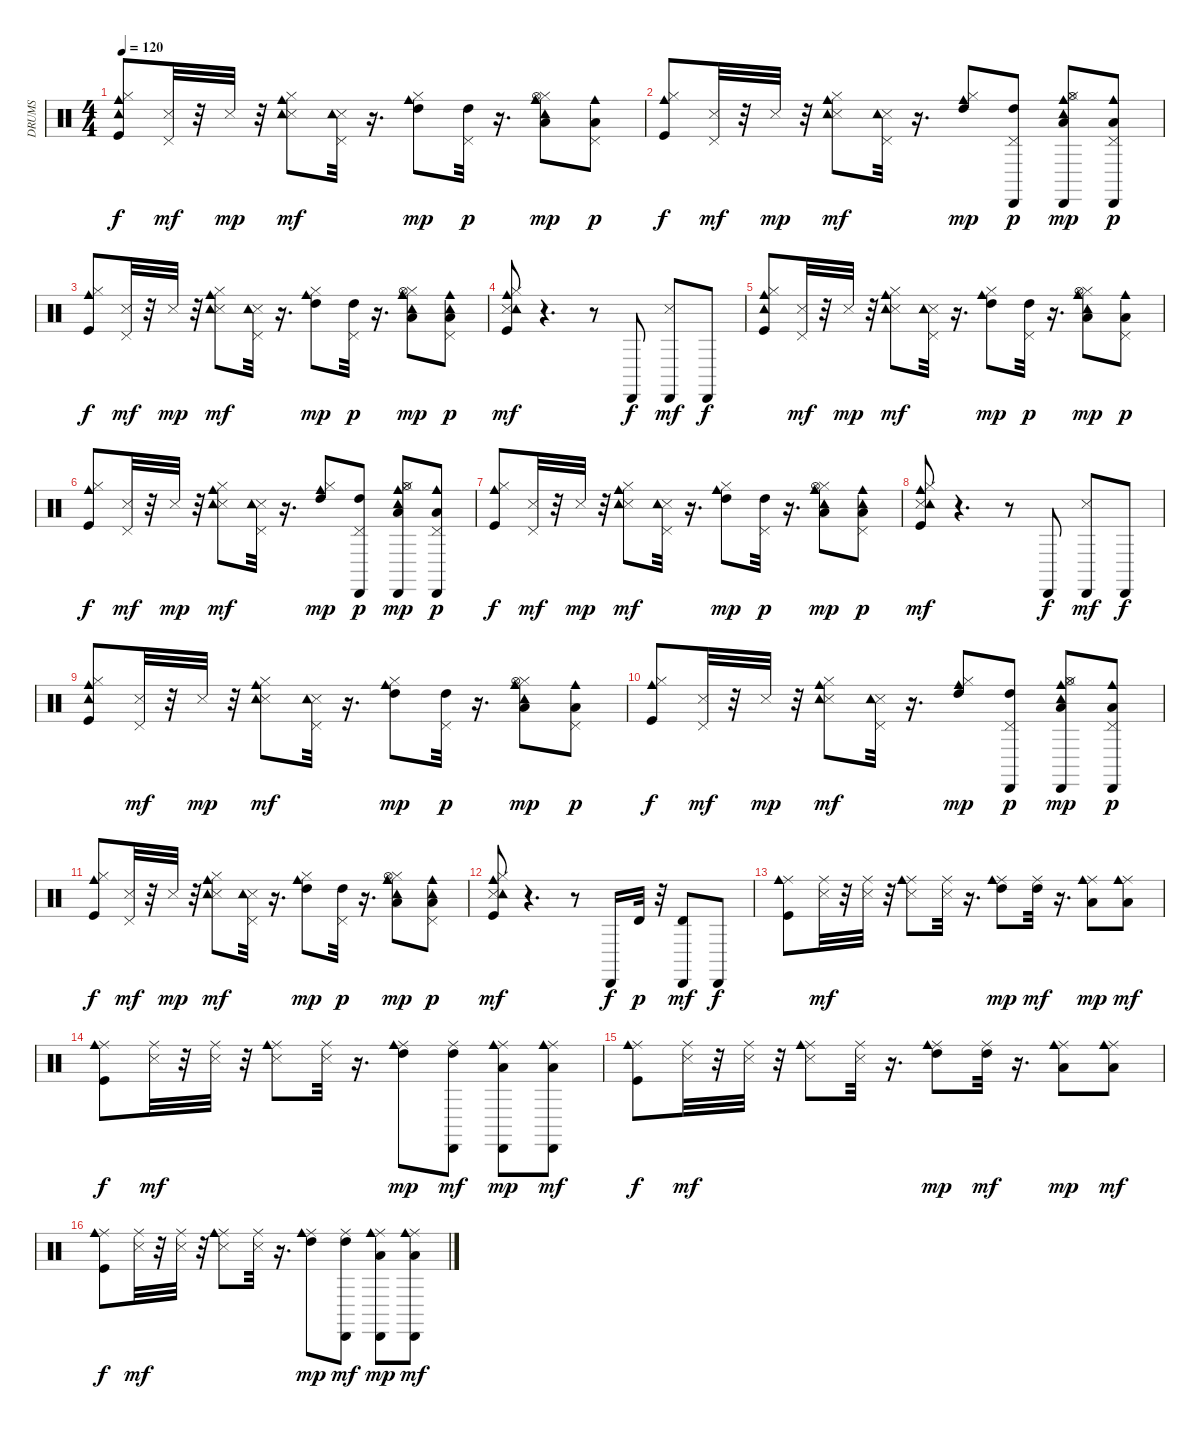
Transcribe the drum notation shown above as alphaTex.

\track ("DRUMS               " "DRUMS     ") {instrument percussion}
\staff {score}
\articulation defaults
\ts (4 4)
\tempo 120
\clef neutral
\ks c
("Kick (hit)" "Hi-Hat (closed)" "Tambourine (hit)" "Cowbell medium (hit)").8{dy f} ("Snare (side stick) 3" "Pedal Hi-Hat (hit)").32{dy mf} r.32 "Snare (side stick) 3".32{dy mp} r.32 ("Snare (side stick) 3" "Hi-Hat (closed)" "Tambourine (hit)" "Cowbell medium (hit)").8{dy mf} ("Snare (side stick) 3" "Pedal Hi-Hat (hit)" "Tambourine (hit)").32 r.16{d} ("High Tom (hit)" "Hi-Hat (closed)" "Cowbell medium (hit)").8{dy mp} ("High Tom (hit)" "Pedal Hi-Hat (hit)").32{dy p} r.16{d} ("Low Floor Tom (hit)" "Hi-Hat (closed)" "Tambourine (hit)" "Hi-Hat (open)" "Cowbell medium (hit)").8{dy mp} ("Low Floor Tom (hit)" "Pedal Hi-Hat (hit)" "Cowbell medium (hit)").8{dy p} |
("Kick (hit)" "Hi-Hat (closed)" "Cowbell medium (hit)").8{dy f} ("Snare (side stick) 3" "Pedal Hi-Hat (hit)").32{dy mf} r.32 "Snare (side stick) 3".32{dy mp} r.32 ("Snare (side stick) 3" "Hi-Hat (closed)" "Tambourine (hit)" "Cowbell medium (hit)").8{dy mf} ("Snare (side stick) 3" "Pedal Hi-Hat (hit)" "Tambourine (hit)").32 r.16{d} ("High Tom (hit)" "Hi-Hat (closed)" "Cowbell medium (hit)").8{dy mp} ("High Tom (hit)" "Pedal Hi-Hat (hit)" "Cabasa (hit)").8{dy p} ("Low Floor Tom (hit)" "Hi-Hat (closed)" "Tambourine (hit)" "Hi-Hat (open)" "Cowbell medium (hit)" "Cabasa (hit)").8{dy mp} ("Low Floor Tom (hit)" "Pedal Hi-Hat (hit)" "Cowbell medium (hit)" "Cabasa (hit)").8{dy p} |
("Kick (hit)" "Hi-Hat (closed)" "Cowbell medium (hit)").8{dy f} ("Snare (side stick) 3" "Pedal Hi-Hat (hit)").32{dy mf} r.32 "Snare (side stick) 3".32{dy mp} r.32 ("Snare (side stick) 3" "Hi-Hat (closed)" "Tambourine (hit)" "Cowbell medium (hit)").8{dy mf} ("Snare (side stick) 3" "Pedal Hi-Hat (hit)" "Tambourine (hit)").32 r.16{d} ("High Tom (hit)" "Hi-Hat (closed)" "Cowbell medium (hit)").8{dy mp} ("High Tom (hit)" "Pedal Hi-Hat (hit)").32{dy p} r.16{d} ("Low Floor Tom (hit)" "Hi-Hat (closed)" "Tambourine (hit)" "Hi-Hat (open)" "Cowbell medium (hit)").8{dy mp} ("Low Floor Tom (hit)" "Pedal Hi-Hat (hit)" "Tambourine (hit)" "Cowbell medium (hit)").8{dy p} |
("Kick (hit)" "Snare (side stick) 3" "Hi-Hat (closed)" "Tambourine (hit)" "Cowbell medium (hit)").8{dy mf} r.4{d} r.8 "Cabasa (hit)".8{dy f} ("Snare (side stick) 3" "Cabasa (hit)").8{dy mf} "Cabasa (hit)".8{dy f} |
("Kick (hit)" "Hi-Hat (closed)" "Tambourine (hit)" "Cowbell medium (hit)").8 ("Snare (side stick) 3" "Pedal Hi-Hat (hit)").32{dy mf} r.32 "Snare (side stick) 3".32{dy mp} r.32 ("Snare (side stick) 3" "Hi-Hat (closed)" "Tambourine (hit)" "Cowbell medium (hit)").8{dy mf} ("Snare (side stick) 3" "Pedal Hi-Hat (hit)" "Tambourine (hit)").32 r.16{d} ("High Tom (hit)" "Hi-Hat (closed)" "Cowbell medium (hit)").8{dy mp} ("High Tom (hit)" "Pedal Hi-Hat (hit)").32{dy p} r.16{d} ("Low Floor Tom (hit)" "Hi-Hat (closed)" "Tambourine (hit)" "Hi-Hat (open)" "Cowbell medium (hit)").8{dy mp} ("Low Floor Tom (hit)" "Pedal Hi-Hat (hit)" "Cowbell medium (hit)").8{dy p} |
("Kick (hit)" "Hi-Hat (closed)" "Cowbell medium (hit)").8{dy f} ("Snare (side stick) 3" "Pedal Hi-Hat (hit)").32{dy mf} r.32 "Snare (side stick) 3".32{dy mp} r.32 ("Snare (side stick) 3" "Hi-Hat (closed)" "Tambourine (hit)" "Cowbell medium (hit)").8{dy mf} ("Snare (side stick) 3" "Pedal Hi-Hat (hit)" "Tambourine (hit)").32 r.16{d} ("High Tom (hit)" "Hi-Hat (closed)" "Cowbell medium (hit)").8{dy mp} ("High Tom (hit)" "Pedal Hi-Hat (hit)" "Cabasa (hit)").8{dy p} ("Low Floor Tom (hit)" "Hi-Hat (closed)" "Tambourine (hit)" "Hi-Hat (open)" "Cowbell medium (hit)" "Cabasa (hit)").8{dy mp} ("Low Floor Tom (hit)" "Pedal Hi-Hat (hit)" "Cowbell medium (hit)" "Cabasa (hit)").8{dy p} |
("Kick (hit)" "Hi-Hat (closed)" "Cowbell medium (hit)").8{dy f} ("Snare (side stick) 3" "Pedal Hi-Hat (hit)").32{dy mf} r.32 "Snare (side stick) 3".32{dy mp} r.32 ("Snare (side stick) 3" "Hi-Hat (closed)" "Tambourine (hit)" "Cowbell medium (hit)").8{dy mf} ("Snare (side stick) 3" "Pedal Hi-Hat (hit)" "Tambourine (hit)").32 r.16{d} ("High Tom (hit)" "Hi-Hat (closed)" "Cowbell medium (hit)").8{dy mp} ("High Tom (hit)" "Pedal Hi-Hat (hit)").32{dy p} r.16{d} ("Low Floor Tom (hit)" "Hi-Hat (closed)" "Tambourine (hit)" "Hi-Hat (open)" "Cowbell medium (hit)").8{dy mp} ("Low Floor Tom (hit)" "Pedal Hi-Hat (hit)" "Tambourine (hit)" "Cowbell medium (hit)").8{dy p} |
("Kick (hit)" "Snare (side stick) 3" "Hi-Hat (closed)" "Tambourine (hit)" "Cowbell medium (hit)").8{dy mf} r.4{d} r.8 "Cabasa (hit)".8{dy f} ("Snare (side stick) 3" "Cabasa (hit)").8{dy mf} "Cabasa (hit)".8{dy f} |
("Kick (hit)" "Hi-Hat (closed)" "Tambourine (hit)" "Cowbell medium (hit)").8 ("Snare (side stick) 3" "Pedal Hi-Hat (hit)").32{dy mf} r.32 "Snare (side stick) 3".32{dy mp} r.32 ("Snare (side stick) 3" "Hi-Hat (closed)" "Tambourine (hit)" "Cowbell medium (hit)").8{dy mf} ("Snare (side stick) 3" "Pedal Hi-Hat (hit)" "Tambourine (hit)").32 r.16{d} ("High Tom (hit)" "Hi-Hat (closed)" "Cowbell medium (hit)").8{dy mp} ("High Tom (hit)" "Pedal Hi-Hat (hit)").32{dy p} r.16{d} ("Low Floor Tom (hit)" "Hi-Hat (closed)" "Hi-Hat (open)" "Cowbell medium (hit)" "Tambourine (hit)").8{dy mp} ("Low Floor Tom (hit)" "Pedal Hi-Hat (hit)" "Cowbell medium (hit)").8{dy p} |
("Kick (hit)" "Hi-Hat (closed)" "Cowbell medium (hit)").8{dy f} ("Snare (side stick) 3" "Pedal Hi-Hat (hit)").32{dy mf} r.32 "Snare (side stick) 3".32{dy mp} r.32 ("Snare (side stick) 3" "Hi-Hat (closed)" "Tambourine (hit)" "Cowbell medium (hit)").8{dy mf} ("Snare (side stick) 3" "Pedal Hi-Hat (hit)" "Tambourine (hit)").32 r.16{d} ("High Tom (hit)" "Hi-Hat (closed)" "Cowbell medium (hit)").8{dy mp} ("High Tom (hit)" "Pedal Hi-Hat (hit)" "Cabasa (hit)").8{dy p} ("Low Floor Tom (hit)" "Hi-Hat (closed)" "Hi-Hat (open)" "Cowbell medium (hit)" "Cabasa (hit)" "Tambourine (hit)").8{dy mp} ("Low Floor Tom (hit)" "Pedal Hi-Hat (hit)" "Cowbell medium (hit)" "Cabasa (hit)").8{dy p} |
("Kick (hit)" "Hi-Hat (closed)" "Cowbell medium (hit)").8{dy f} ("Snare (side stick) 3" "Pedal Hi-Hat (hit)").32{dy mf} r.32 "Snare (side stick) 3".32{dy mp} r.32 ("Snare (side stick) 3" "Hi-Hat (closed)" "Tambourine (hit)" "Cowbell medium (hit)").8{dy mf} ("Snare (side stick) 3" "Pedal Hi-Hat (hit)" "Tambourine (hit)").32 r.16{d} ("High Tom (hit)" "Hi-Hat (closed)" "Cowbell medium (hit)").8{dy mp} ("High Tom (hit)" "Pedal Hi-Hat (hit)").32{dy p} r.16{d} ("Low Floor Tom (hit)" "Hi-Hat (closed)" "Tambourine (hit)" "Hi-Hat (open)" "Cowbell medium (hit)").8{dy mp} ("Low Floor Tom (hit)" "Pedal Hi-Hat (hit)" "Tambourine (hit)" "Cowbell medium (hit)").8{dy p} |
("Kick (hit)" "Snare (side stick) 3" "Hi-Hat (closed)" "Tambourine (hit)" "Cowbell medium (hit)").8{dy mf} r.4{d} r.8 "Cabasa (hit)".16{dy f} "Timbale high (hit)".32{dy p} r.32 ("Timbale high (hit)" "Cabasa (hit)").8{dy mf} "Cabasa (hit)".8{dy f} |
("Kick (hit)" "Ride (middle)" "Cowbell medium (hit)").8 ("Snare (side stick) 3" "Ride (middle)").32{dy mf} r.32 ("Snare (side stick) 3" "Ride (middle)").32 r.32 ("Snare (side stick) 3" "Ride (middle)" "Cowbell medium (hit)").8 ("Snare (side stick) 3" "Ride (middle)").32 r.16{d} ("High Tom (hit)" "Ride (middle)" "Cowbell medium (hit)").8{dy mp} ("High Tom (hit)" "Ride (middle)").32{dy mf} r.16{d} ("Low Floor Tom (hit)" "Ride (middle)" "Cowbell medium (hit)").8{dy mp} ("Low Floor Tom (hit)" "Ride (middle)" "Cowbell medium (hit)").8{dy mf} |
("Kick (hit)" "Ride (middle)" "Cowbell medium (hit)").8{dy f} ("Snare (side stick) 3" "Ride (middle)").32{dy mf} r.32 ("Snare (side stick) 3" "Ride (middle)").32 r.32 ("Snare (side stick) 3" "Ride (middle)" "Cowbell medium (hit)").8 ("Snare (side stick) 3" "Ride (middle)").32 r.16{d} ("High Tom (hit)" "Ride (middle)" "Cowbell medium (hit)").8{dy mp} ("High Tom (hit)" "Ride (middle)" "Cabasa (hit)").8{dy mf} ("Low Floor Tom (hit)" "Ride (middle)" "Cowbell medium (hit)" "Cabasa (hit)").8{dy mp} ("Low Floor Tom (hit)" "Ride (middle)" "Cowbell medium (hit)" "Cabasa (hit)").8{dy mf} |
("Kick (hit)" "Ride (middle)" "Cowbell medium (hit)").8{dy f} ("Snare (side stick) 3" "Ride (middle)").32{dy mf} r.32 ("Snare (side stick) 3" "Ride (middle)").32 r.32 ("Snare (side stick) 3" "Ride (middle)" "Cowbell medium (hit)").8 ("Snare (side stick) 3" "Ride (middle)").32 r.16{d} ("High Tom (hit)" "Ride (middle)" "Cowbell medium (hit)").8{dy mp} ("High Tom (hit)" "Ride (middle)").32{dy mf} r.16{d} ("Low Floor Tom (hit)" "Ride (middle)" "Cowbell medium (hit)").8{dy mp} ("Low Floor Tom (hit)" "Ride (middle)" "Cowbell medium (hit)").8{dy mf} |
("Kick (hit)" "Ride (middle)" "Cowbell medium (hit)").8{dy f} ("Snare (side stick) 3" "Ride (middle)").32{dy mf} r.32 ("Snare (side stick) 3" "Ride (middle)").32 r.32 ("Snare (side stick) 3" "Ride (middle)" "Cowbell medium (hit)").8 ("Snare (side stick) 3" "Ride (middle)").32 r.16{d} ("High Tom (hit)" "Ride (middle)" "Cowbell medium (hit)").8{dy mp} ("High Tom (hit)" "Ride (middle)" "Cabasa (hit)").8{dy mf} ("Low Floor Tom (hit)" "Ride (middle)" "Cowbell medium (hit)" "Cabasa (hit)").8{dy mp} ("Low Floor Tom (hit)" "Ride (middle)" "Cowbell medium (hit)" "Cabasa (hit)").8{dy mf}
